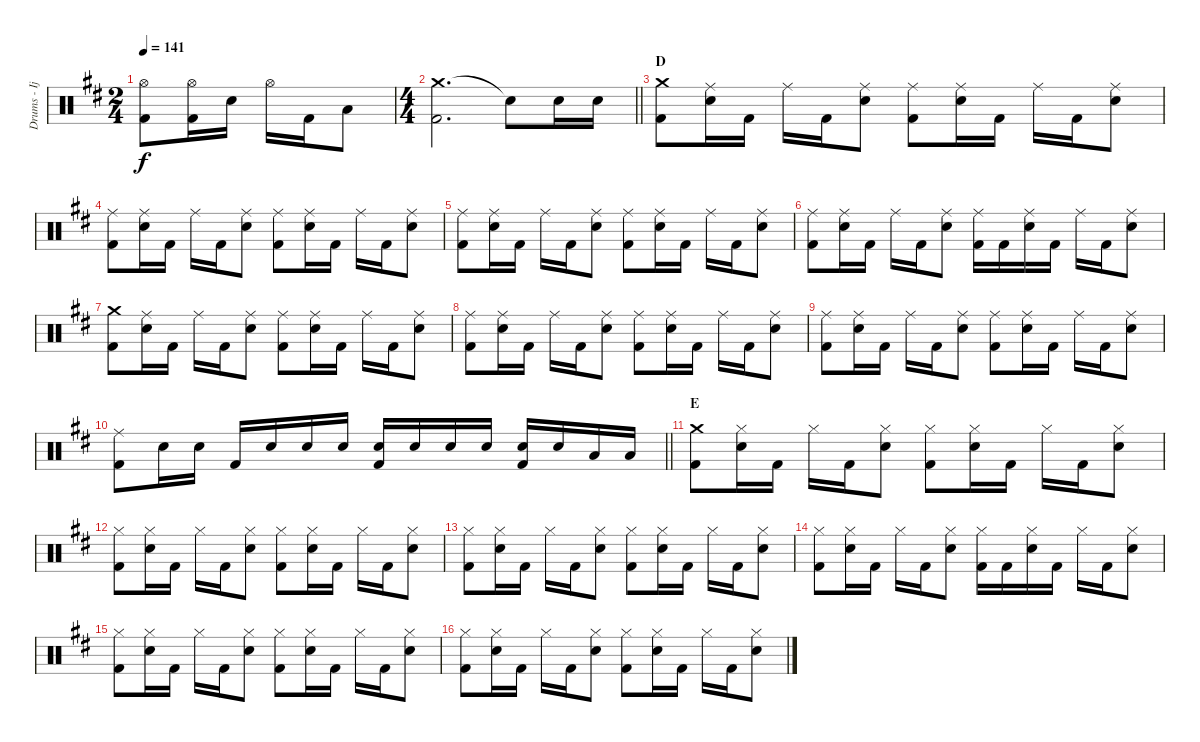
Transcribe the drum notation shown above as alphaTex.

\track ("Drums - Ijichi" "Drums - Ij") {instrument percussion}
\staff {score}
\articulation defaults
\ts (2 4)
\tempo 141
\clef neutral
\ks d
("Hi-Hat (open)" "Kick (hit) 2").8{dy f} ("Hi-Hat (open)" "Kick (hit) 2").16 "Electric Snare (hit)".16 "Hi-Hat (open)".16 "Kick (hit) 2".16 "Low Tom (hit)".8 |
\ts (4 4)
\barLineRight lightlight
("Crash medium (hit)" "Kick (hit) 2").2{d} "Snare (hit)"{t}.8 "Electric Snare (hit)".16 "Electric Snare (hit)".16 |
\section ("" "D")
("Crash medium (hit)" "Kick (hit) 2").8 ("Ride (middle)" "Electric Snare (hit)").16 "Kick (hit) 2".16 "Ride (middle)".16 "Kick (hit) 2".16 ("Ride (middle)" "Electric Snare (hit)").8 ("Ride (middle)" "Kick (hit) 2").8 ("Ride (middle)" "Electric Snare (hit)").16 "Kick (hit) 2".16 "Ride (middle)".16 "Kick (hit) 2".16 ("Ride (middle)" "Electric Snare (hit)").8 |
("Ride (middle)" "Kick (hit) 2").8 ("Ride (middle)" "Electric Snare (hit)").16 "Kick (hit) 2".16 "Ride (middle)".16 "Kick (hit) 2".16 ("Ride (middle)" "Electric Snare (hit)").8 ("Ride (middle)" "Kick (hit) 2").8 ("Ride (middle)" "Electric Snare (hit)").16 "Kick (hit) 2".16 "Ride (middle)".16 "Kick (hit) 2".16 ("Ride (middle)" "Electric Snare (hit)").8 |
("Ride (middle)" "Kick (hit) 2").8 ("Ride (middle)" "Electric Snare (hit)").16 "Kick (hit) 2".16 "Ride (middle)".16 "Kick (hit) 2".16 ("Ride (middle)" "Electric Snare (hit)").8 ("Ride (middle)" "Kick (hit) 2").8 ("Ride (middle)" "Electric Snare (hit)").16 "Kick (hit) 2".16 "Ride (middle)".16 "Kick (hit) 2".16 ("Ride (middle)" "Electric Snare (hit)").8 |
("Ride (middle)" "Kick (hit) 2").8 ("Ride (middle)" "Electric Snare (hit)").16 "Kick (hit) 2".16 "Ride (middle)".16 "Kick (hit) 2".16 ("Ride (middle)" "Electric Snare (hit)").8 ("Ride (middle)" "Kick (hit) 2").16 "Kick (hit) 2".16 ("Ride (middle)" "Electric Snare (hit)").16 "Kick (hit) 2".16 "Ride (middle)".16 "Kick (hit) 2".16 ("Ride (middle)" "Electric Snare (hit)").8 |
("Crash medium (hit)" "Kick (hit) 2").8 ("Ride (middle)" "Electric Snare (hit)").16 "Kick (hit) 2".16 "Ride (middle)".16 "Kick (hit) 2".16 ("Ride (middle)" "Electric Snare (hit)").8 ("Ride (middle)" "Kick (hit) 2").8 ("Ride (middle)" "Electric Snare (hit)").16 "Kick (hit) 2".16 "Ride (middle)".16 "Kick (hit) 2".16 ("Ride (middle)" "Electric Snare (hit)").8 |
("Ride (middle)" "Kick (hit) 2").8 ("Ride (middle)" "Electric Snare (hit)").16 "Kick (hit) 2".16 "Ride (middle)".16 "Kick (hit) 2".16 ("Ride (middle)" "Electric Snare (hit)").8 ("Ride (middle)" "Kick (hit) 2").8 ("Ride (middle)" "Electric Snare (hit)").16 "Kick (hit) 2".16 "Ride (middle)".16 "Kick (hit) 2".16 ("Ride (middle)" "Electric Snare (hit)").8 |
("Ride (middle)" "Kick (hit) 2").8 ("Ride (middle)" "Electric Snare (hit)").16 "Kick (hit) 2".16 "Ride (middle)".16 "Kick (hit) 2".16 ("Ride (middle)" "Electric Snare (hit)").8 ("Ride (middle)" "Kick (hit) 2").8 ("Ride (middle)" "Electric Snare (hit)").16 "Kick (hit) 2".16 "Ride (middle)".16 "Kick (hit) 2".16 ("Ride (middle)" "Electric Snare (hit)").8 |
\barLineRight lightlight
("Ride (middle)" "Kick (hit) 2").8 "Electric Snare (hit)".16 "Electric Snare (hit)".16 "Kick (hit) 2".16 "Electric Snare (hit)".16 "Electric Snare (hit)".16 "Electric Snare (hit)".16 ("Electric Snare (hit)" "Kick (hit) 2").16 "Electric Snare (hit)".16 "Electric Snare (hit)".16 "Electric Snare (hit)".16 ("Electric Snare (hit)" "Kick (hit) 2").16 "Electric Snare (hit)".16 "Low Tom (hit)".16 "Low Tom (hit)".16 |
\section ("" "E")
("Crash medium (hit)" "Kick (hit) 2").8 ("Hi-Hat (closed)" "Electric Snare (hit)").16 "Kick (hit) 2".16 "Hi-Hat (closed)".16 "Kick (hit) 2".16 ("Hi-Hat (closed)" "Electric Snare (hit)").8 ("Hi-Hat (closed)" "Kick (hit) 2").8 ("Hi-Hat (closed)" "Electric Snare (hit)").16 "Kick (hit) 2".16 "Hi-Hat (closed)".16 "Kick (hit) 2".16 ("Hi-Hat (closed)" "Electric Snare (hit)").8 |
("Hi-Hat (closed)" "Kick (hit) 2").8 ("Hi-Hat (closed)" "Electric Snare (hit)").16 "Kick (hit) 2".16 "Hi-Hat (closed)".16 "Kick (hit) 2".16 ("Hi-Hat (closed)" "Electric Snare (hit)").8 ("Hi-Hat (closed)" "Kick (hit) 2").8 ("Hi-Hat (closed)" "Electric Snare (hit)").16 "Kick (hit) 2".16 "Hi-Hat (closed)".16 "Kick (hit) 2".16 ("Hi-Hat (closed)" "Electric Snare (hit)").8 |
("Hi-Hat (closed)" "Kick (hit) 2").8 ("Hi-Hat (closed)" "Electric Snare (hit)").16 "Kick (hit) 2".16 "Hi-Hat (closed)".16 "Kick (hit) 2".16 ("Hi-Hat (closed)" "Electric Snare (hit)").8 ("Hi-Hat (closed)" "Kick (hit) 2").8 ("Hi-Hat (closed)" "Electric Snare (hit)").16 "Kick (hit) 2".16 "Hi-Hat (closed)".16 "Kick (hit) 2".16 ("Hi-Hat (closed)" "Electric Snare (hit)").8 |
("Hi-Hat (closed)" "Kick (hit) 2").8 ("Hi-Hat (closed)" "Electric Snare (hit)").16 "Kick (hit) 2".16 "Hi-Hat (closed)".16 "Kick (hit) 2".16 ("Hi-Hat (closed)" "Electric Snare (hit)").8 ("Hi-Hat (closed)" "Kick (hit) 2").16 "Kick (hit) 2".16 ("Hi-Hat (closed)" "Electric Snare (hit)").16 "Kick (hit) 2".16 "Hi-Hat (closed)".16 "Kick (hit) 2".16 ("Hi-Hat (closed)" "Electric Snare (hit)").8 |
("Hi-Hat (closed)" "Kick (hit) 2").8 ("Hi-Hat (closed)" "Electric Snare (hit)").16 "Kick (hit) 2".16 "Hi-Hat (closed)".16 "Kick (hit) 2".16 ("Hi-Hat (closed)" "Electric Snare (hit)").8 ("Hi-Hat (closed)" "Kick (hit) 2").8 ("Hi-Hat (closed)" "Electric Snare (hit)").16 "Kick (hit) 2".16 "Hi-Hat (closed)".16 "Kick (hit) 2".16 ("Hi-Hat (closed)" "Electric Snare (hit)").8 |
("Hi-Hat (closed)" "Kick (hit) 2").8 ("Hi-Hat (closed)" "Electric Snare (hit)").16 "Kick (hit) 2".16 "Hi-Hat (closed)".16 "Kick (hit) 2".16 ("Hi-Hat (closed)" "Electric Snare (hit)").8 ("Hi-Hat (closed)" "Kick (hit) 2").8 ("Hi-Hat (closed)" "Electric Snare (hit)").16 "Kick (hit) 2".16 "Hi-Hat (closed)".16 "Kick (hit) 2".16 ("Hi-Hat (closed)" "Electric Snare (hit)").8
